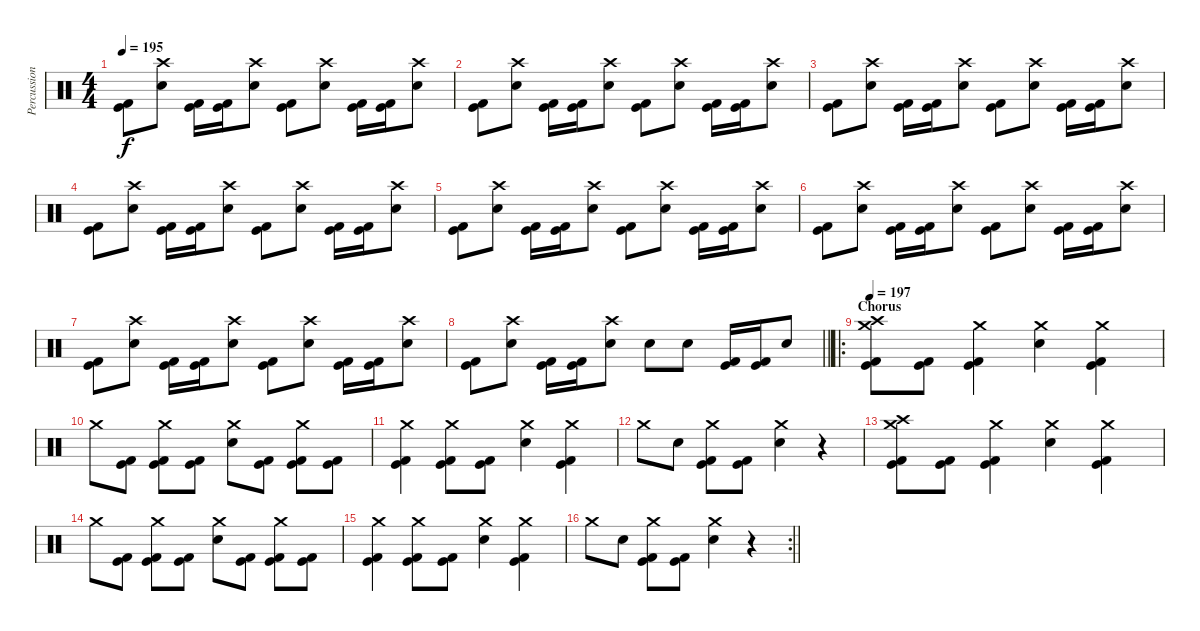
\track ("Percussion" "Percussion") {instrument percussion}
\staff {score}
\articulation defaults
\ts (4 4)
\tempo 195
\clef neutral
\ks c
("Kick (hit)" "Kick (hit) 2").8{dy f} ("Crash high (hit)" "Electric Snare (hit)").8 ("Kick (hit)" "Kick (hit) 2").16 ("Kick (hit)" "Kick (hit) 2").16 ("Crash high (hit)" "Electric Snare (hit)").8 ("Kick (hit)" "Kick (hit) 2").8 ("Crash high (hit)" "Electric Snare (hit)").8 ("Kick (hit)" "Kick (hit) 2").16 ("Kick (hit)" "Kick (hit) 2").16 ("Crash high (hit)" "Electric Snare (hit)").8 |
("Kick (hit)" "Kick (hit) 2").8 ("Crash high (hit)" "Electric Snare (hit)").8 ("Kick (hit)" "Kick (hit) 2").16 ("Kick (hit)" "Kick (hit) 2").16 ("Crash high (hit)" "Electric Snare (hit)").8 ("Kick (hit)" "Kick (hit) 2").8 ("Crash high (hit)" "Electric Snare (hit)").8 ("Kick (hit)" "Kick (hit) 2").16 ("Kick (hit)" "Kick (hit) 2").16 ("Crash high (hit)" "Electric Snare (hit)").8 |
("Kick (hit)" "Kick (hit) 2").8 ("Crash high (hit)" "Electric Snare (hit)").8 ("Kick (hit)" "Kick (hit) 2").16 ("Kick (hit)" "Kick (hit) 2").16 ("Crash high (hit)" "Electric Snare (hit)").8 ("Kick (hit)" "Kick (hit) 2").8 ("Crash high (hit)" "Electric Snare (hit)").8 ("Kick (hit)" "Kick (hit) 2").16 ("Kick (hit)" "Kick (hit) 2").16 ("Crash high (hit)" "Electric Snare (hit)").8 |
("Kick (hit)" "Kick (hit) 2").8 ("Crash high (hit)" "Electric Snare (hit)").8 ("Kick (hit)" "Kick (hit) 2").16 ("Kick (hit)" "Kick (hit) 2").16 ("Crash high (hit)" "Electric Snare (hit)").8 ("Kick (hit)" "Kick (hit) 2").8 ("Crash high (hit)" "Electric Snare (hit)").8 ("Kick (hit)" "Kick (hit) 2").16 ("Kick (hit)" "Kick (hit) 2").16 ("Crash high (hit)" "Electric Snare (hit)").8 |
("Kick (hit)" "Kick (hit) 2").8 ("Crash high (hit)" "Electric Snare (hit)").8 ("Kick (hit)" "Kick (hit) 2").16 ("Kick (hit)" "Kick (hit) 2").16 ("Crash high (hit)" "Electric Snare (hit)").8 ("Kick (hit)" "Kick (hit) 2").8 ("Crash high (hit)" "Electric Snare (hit)").8 ("Kick (hit)" "Kick (hit) 2").16 ("Kick (hit)" "Kick (hit) 2").16 ("Crash high (hit)" "Electric Snare (hit)").8 |
("Kick (hit)" "Kick (hit) 2").8 ("Crash high (hit)" "Electric Snare (hit)").8 ("Kick (hit)" "Kick (hit) 2").16 ("Kick (hit)" "Kick (hit) 2").16 ("Crash high (hit)" "Electric Snare (hit)").8 ("Kick (hit)" "Kick (hit) 2").8 ("Crash high (hit)" "Electric Snare (hit)").8 ("Kick (hit)" "Kick (hit) 2").16 ("Kick (hit)" "Kick (hit) 2").16 ("Crash high (hit)" "Electric Snare (hit)").8 |
("Kick (hit)" "Kick (hit) 2").8 ("Crash high (hit)" "Electric Snare (hit)").8 ("Kick (hit)" "Kick (hit) 2").16 ("Kick (hit)" "Kick (hit) 2").16 ("Crash high (hit)" "Electric Snare (hit)").8 ("Kick (hit)" "Kick (hit) 2").8 ("Crash high (hit)" "Electric Snare (hit)").8 ("Kick (hit)" "Kick (hit) 2").16 ("Kick (hit)" "Kick (hit) 2").16 ("Crash high (hit)" "Electric Snare (hit)").8 |
\barLineRight lightlight
("Kick (hit)" "Kick (hit) 2").8 ("Crash high (hit)" "Electric Snare (hit)").8 ("Kick (hit)" "Kick (hit) 2").16 ("Kick (hit)" "Kick (hit) 2").16 ("Crash high (hit)" "Electric Snare (hit)").8 "Electric Snare (hit)".8 "Electric Snare (hit)".8 ("Kick (hit)" "Kick (hit) 2").16 ("Kick (hit)" "Kick (hit) 2").16 "Electric Snare (hit)".8 |
\ro
\section ("" "Chorus")
\tempo 197
("Crash high (hit)" "Crash medium (hit)" "Kick (hit)" "Kick (hit) 2").8 ("Kick (hit)" "Kick (hit) 2").8 ("Crash medium (hit)" "Kick (hit)" "Kick (hit) 2").4 ("Crash medium (hit)" "Electric Snare (hit)").4 ("Crash medium (hit)" "Kick (hit)" "Kick (hit) 2").4 |
"Crash medium (hit)".8 ("Kick (hit)" "Kick (hit) 2").8 ("Crash medium (hit)" "Kick (hit)" "Kick (hit) 2").8 ("Kick (hit)" "Kick (hit) 2").8 ("Crash medium (hit)" "Electric Snare (hit)").8 ("Kick (hit)" "Kick (hit) 2").8 ("Crash medium (hit)" "Kick (hit)" "Kick (hit) 2").8 ("Kick (hit)" "Kick (hit) 2").8 |
("Crash medium (hit)" "Kick (hit)" "Kick (hit) 2").4 ("Crash medium (hit)" "Kick (hit)" "Kick (hit) 2").8 ("Kick (hit)" "Kick (hit) 2").8 ("Crash medium (hit)" "Electric Snare (hit)").4 ("Crash medium (hit)" "Kick (hit)" "Kick (hit) 2").4 |
"Crash medium (hit)".8 "Electric Snare (hit)".8 ("Crash medium (hit)" "Kick (hit)" "Kick (hit) 2").8 ("Kick (hit)" "Kick (hit) 2").8 ("Crash medium (hit)" "Electric Snare (hit)").4 r.4 |
("Crash high (hit)" "Crash medium (hit)" "Kick (hit)" "Kick (hit) 2").8 ("Kick (hit)" "Kick (hit) 2").8 ("Crash medium (hit)" "Kick (hit)" "Kick (hit) 2").4 ("Crash medium (hit)" "Electric Snare (hit)").4 ("Crash medium (hit)" "Kick (hit)" "Kick (hit) 2").4 |
"Crash medium (hit)".8 ("Kick (hit)" "Kick (hit) 2").8 ("Crash medium (hit)" "Kick (hit)" "Kick (hit) 2").8 ("Kick (hit)" "Kick (hit) 2").8 ("Crash medium (hit)" "Electric Snare (hit)").8 ("Kick (hit)" "Kick (hit) 2").8 ("Crash medium (hit)" "Kick (hit)" "Kick (hit) 2").8 ("Kick (hit)" "Kick (hit) 2").8 |
("Crash medium (hit)" "Kick (hit)" "Kick (hit) 2").4 ("Crash medium (hit)" "Kick (hit)" "Kick (hit) 2").8 ("Kick (hit)" "Kick (hit) 2").8 ("Crash medium (hit)" "Electric Snare (hit)").4 ("Crash medium (hit)" "Kick (hit)" "Kick (hit) 2").4 |
\rc 2
\barLineRight lightlight "Crash medium (hit)".8 "Electric Snare (hit)".8
("Crash medium (hit)" "Kick (hit)" "Kick (hit) 2").8 ("Kick (hit)" "Kick (hit) 2").8 ("Crash medium (hit)" "Electric Snare (hit)").4 r.4
